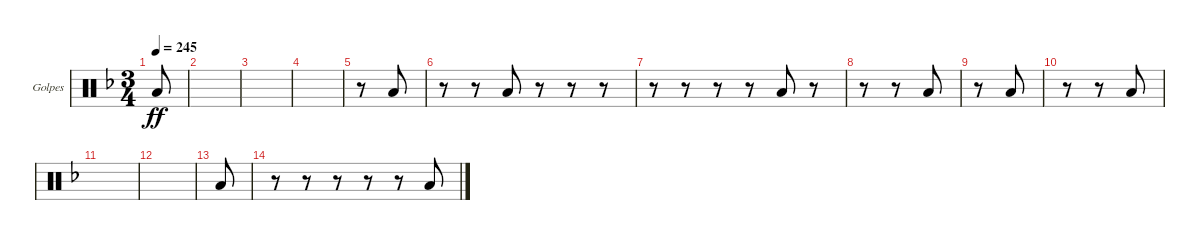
\defaultSystemsLayout 4
\bracketExtendMode groupsimilarinstruments
\firstSystemTrackNameOrientation horizontal
\otherSystemsTrackNameOrientation horizontal
\track ("Golpes" "Golpes") {instrument percussion}
\staff {score}
\articulation defaults
\ts (3 4)
\tempo 245
\clef neutral
\ks f "Low Tom (hit)".8{dy ff}
|
|
|
|
r.8 "Low Tom (hit)".8 |
r.8 r.8 "Low Tom (hit)".8 r.8 r.8 r.8 |
r.8 r.8 r.8 r.8 "Low Tom (hit)".8 r.8 |
r.8 r.8 "Low Tom (hit)".8 |
r.8 "Low Tom (hit)".8 |
r.8 r.8 "Low Tom (hit)".8 |
|
|
"Low Tom (hit)".8 |
r.8 r.8 r.8 r.8 r.8 "Low Tom (hit)".8
